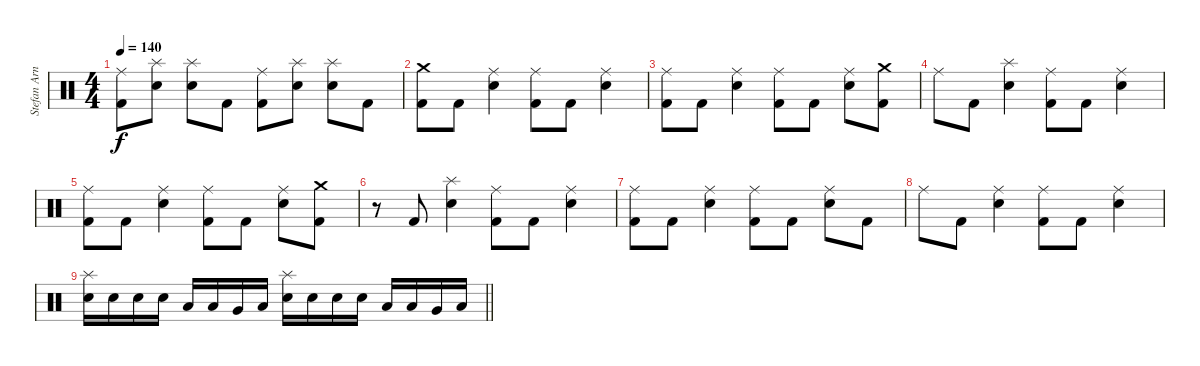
\track ("Stefan Arnold" "Stefan Arn") {instrument percussion}
\staff {score}
\articulation defaults
\ts (4 4)
\tempo 140
\clef neutral
\ks c
("Ride (middle)" "Kick (hit) 2").8{dy f} ("Splash (hit)" "Electric Snare (hit)").8 ("Splash (hit)" "Electric Snare (hit)").8 "Kick (hit) 2".8 ("Ride (middle)" "Kick (hit) 2").8 ("Splash (hit)" "Electric Snare (hit)").8 ("Splash (hit)" "Electric Snare (hit)").8 "Kick (hit) 2".8 |
("Crash medium (hit)" "Kick (hit) 2").8{volume 14} "Kick (hit) 2".8 ("Ride (middle)" "Electric Snare (hit)").4 ("Ride (middle)" "Kick (hit) 2").8 "Kick (hit) 2".8 ("Ride (middle)" "Electric Snare (hit)").4 |
("Ride (middle)" "Kick (hit) 2").8{volume 12} "Kick (hit) 2".8 ("Ride (middle)" "Electric Snare (hit)").4 ("Ride (middle)" "Kick (hit) 2").8 "Kick (hit) 2".8 ("Ride (middle)" "Electric Snare (hit)").8 ("Crash medium (hit)" "Kick (hit) 2").8 |
"Ride (middle)".8{volume 10} "Kick (hit) 2".8 ("Splash (hit)" "Electric Snare (hit)").4 ("Ride (middle)" "Kick (hit) 2").8 "Kick (hit) 2".8 ("Ride (middle)" "Electric Snare (hit)").4 |
("Ride (middle)" "Kick (hit) 2").8{volume 8} "Kick (hit) 2".8 ("Ride (middle)" "Electric Snare (hit)").4 ("Ride (middle)" "Kick (hit) 2").8 "Kick (hit) 2".8 ("Ride (middle)" "Electric Snare (hit)").8 ("Crash medium (hit)" "Kick (hit) 2").8 |
r.8{volume 6} "Kick (hit) 2".8 ("Splash (hit)" "Electric Snare (hit)").4 ("Ride (middle)" "Kick (hit) 2").8 "Kick (hit) 2".8 ("Ride (middle)" "Electric Snare (hit)").4 |
("Ride (middle)" "Kick (hit) 2").8{volume 4} "Kick (hit) 2".8 ("Ride (middle)" "Electric Snare (hit)").4 ("Ride (middle)" "Kick (hit) 2").8 "Kick (hit) 2".8 ("Ride (middle)" "Electric Snare (hit)").8 "Kick (hit) 2".8 |
"Ride (middle)".8{volume 2} "Kick (hit) 2".8 ("Ride (middle)" "Electric Snare (hit)").4 ("Ride (middle)" "Kick (hit) 2").8 "Kick (hit) 2".8 ("Ride (middle)" "Electric Snare (hit)").4 |
\barLineRight lightlight
("Splash (hit)" "Electric Snare (hit)").16{volume 0} "Electric Snare (hit)".16 "Electric Snare (hit)".16 "Electric Snare (hit)".16 "Low Tom (hit)".16 "Low Tom (hit)".16 "Very Low Tom (hit)".16 "Low Floor Tom (hit)".16 ("Splash (hit)" "Electric Snare (hit)").16 "Electric Snare (hit)".16 "Electric Snare (hit)".16 "Electric Snare (hit)".16 "Low Tom (hit)".16 "Low Tom (hit)".16 "Very Low Tom (hit)".16 "Low Floor Tom (hit)".16
